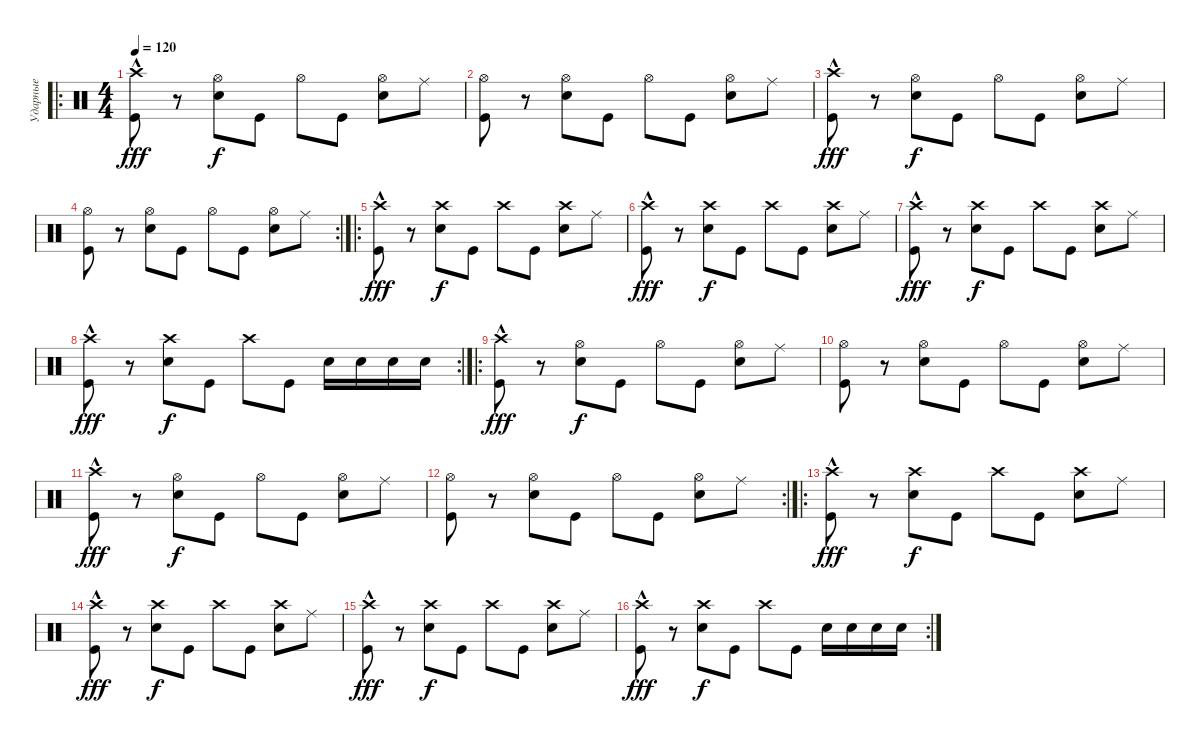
\track ("Ударные" "Ударные") {instrument percussion}
\staff {score}
\articulation defaults
\ro
\ts (4 4)
\tempo 120
\clef neutral
\ks c
("Kick (hit)" "Crash high (hit)"{hac}).8{dy fff} r.8 ("Snare (hit) 2" "Hi-Hat (open)").8{dy f} "Kick (hit)".8 "Hi-Hat (open)".8 "Kick (hit)".8 ("Snare (hit) 2" "Hi-Hat (open)").8 "Ride (middle)".8 |
("Kick (hit)" "Hi-Hat (open)").8 r.8 ("Snare (hit) 2" "Hi-Hat (open)").8 "Kick (hit)".8 "Hi-Hat (open)".8 "Kick (hit)".8 ("Snare (hit) 2" "Hi-Hat (open)").8 "Ride (middle)".8 |
("Kick (hit)" "Crash high (hit)"{hac}).8{dy fff} r.8 ("Snare (hit) 2" "Hi-Hat (open)").8{dy f} "Kick (hit)".8 "Hi-Hat (open)".8 "Kick (hit)".8 ("Snare (hit) 2" "Hi-Hat (open)").8 "Ride (middle)".8 |
\rc 2
("Kick (hit)" "Hi-Hat (open)").8 r.8 ("Snare (hit) 2" "Hi-Hat (open)").8 "Kick (hit)".8 "Hi-Hat (open)".8 "Kick (hit)".8 ("Snare (hit) 2" "Hi-Hat (open)").8 "Ride (middle)".8 |
\ro
("Kick (hit)" "Crash high (hit)"{hac}).8{dy fff} r.8 ("Snare (hit) 2" "Crash high (hit)").8{dy f} "Kick (hit)".8 "Crash high (hit)".8 "Kick (hit)".8 ("Snare (hit) 2" "Crash high (hit)").8 "Ride (middle)".8 |
("Kick (hit)" "Crash high (hit)"{hac}).8{dy fff} r.8 ("Snare (hit) 2" "Crash high (hit)").8{dy f} "Kick (hit)".8 "Crash high (hit)".8 "Kick (hit)".8 ("Snare (hit) 2" "Crash high (hit)").8 "Ride (middle)".8 |
("Kick (hit)" "Crash high (hit)"{hac}).8{dy fff} r.8 ("Snare (hit) 2" "Crash high (hit)").8{dy f} "Kick (hit)".8 "Crash high (hit)".8 "Kick (hit)".8 ("Snare (hit) 2" "Crash high (hit)").8 "Ride (middle)".8 |
\rc 2
("Kick (hit)" "Crash high (hit)"{hac}).8{dy fff} r.8 ("Snare (hit) 2" "Crash high (hit)").8{dy f} "Kick (hit)".8 "Crash high (hit)".8 "Kick (hit)".8 "Snare (hit) 2".16 "Snare (hit) 2".16 "Snare (hit) 2".16 "Snare (hit) 2".16 |
\ro
("Kick (hit)" "Crash high (hit)"{hac}).8{dy fff} r.8 ("Snare (hit) 2" "Hi-Hat (open)").8{dy f} "Kick (hit)".8 "Hi-Hat (open)".8 "Kick (hit)".8 ("Snare (hit) 2" "Hi-Hat (open)").8 "Ride (middle)".8 |
("Kick (hit)" "Hi-Hat (open)").8 r.8 ("Snare (hit) 2" "Hi-Hat (open)").8 "Kick (hit)".8 "Hi-Hat (open)".8 "Kick (hit)".8 ("Snare (hit) 2" "Hi-Hat (open)").8 "Ride (middle)".8 |
("Kick (hit)" "Crash high (hit)"{hac}).8{dy fff} r.8 ("Snare (hit) 2" "Hi-Hat (open)").8{dy f} "Kick (hit)".8 "Hi-Hat (open)".8 "Kick (hit)".8 ("Snare (hit) 2" "Hi-Hat (open)").8 "Ride (middle)".8 |
\rc 2
("Kick (hit)" "Hi-Hat (open)").8 r.8 ("Snare (hit) 2" "Hi-Hat (open)").8 "Kick (hit)".8 "Hi-Hat (open)".8 "Kick (hit)".8 ("Snare (hit) 2" "Hi-Hat (open)").8 "Ride (middle)".8 |
\ro
("Kick (hit)" "Crash high (hit)"{hac}).8{dy fff} r.8 ("Snare (hit) 2" "Crash high (hit)").8{dy f} "Kick (hit)".8 "Crash high (hit)".8 "Kick (hit)".8 ("Snare (hit) 2" "Crash high (hit)").8 "Ride (middle)".8 |
("Kick (hit)" "Crash high (hit)"{hac}).8{dy fff} r.8 ("Snare (hit) 2" "Crash high (hit)").8{dy f} "Kick (hit)".8 "Crash high (hit)".8 "Kick (hit)".8 ("Snare (hit) 2" "Crash high (hit)").8 "Ride (middle)".8 |
("Kick (hit)" "Crash high (hit)"{hac}).8{dy fff} r.8 ("Snare (hit) 2" "Crash high (hit)").8{dy f} "Kick (hit)".8 "Crash high (hit)".8 "Kick (hit)".8 ("Snare (hit) 2" "Crash high (hit)").8 "Ride (middle)".8 |
\rc 2
("Kick (hit)" "Crash high (hit)"{hac}).8{dy fff} r.8 ("Snare (hit) 2" "Crash high (hit)").8{dy f} "Kick (hit)".8 "Crash high (hit)".8 "Kick (hit)".8 "Snare (hit) 2".16 "Snare (hit) 2".16 "Snare (hit) 2".16 "Snare (hit) 2".16
